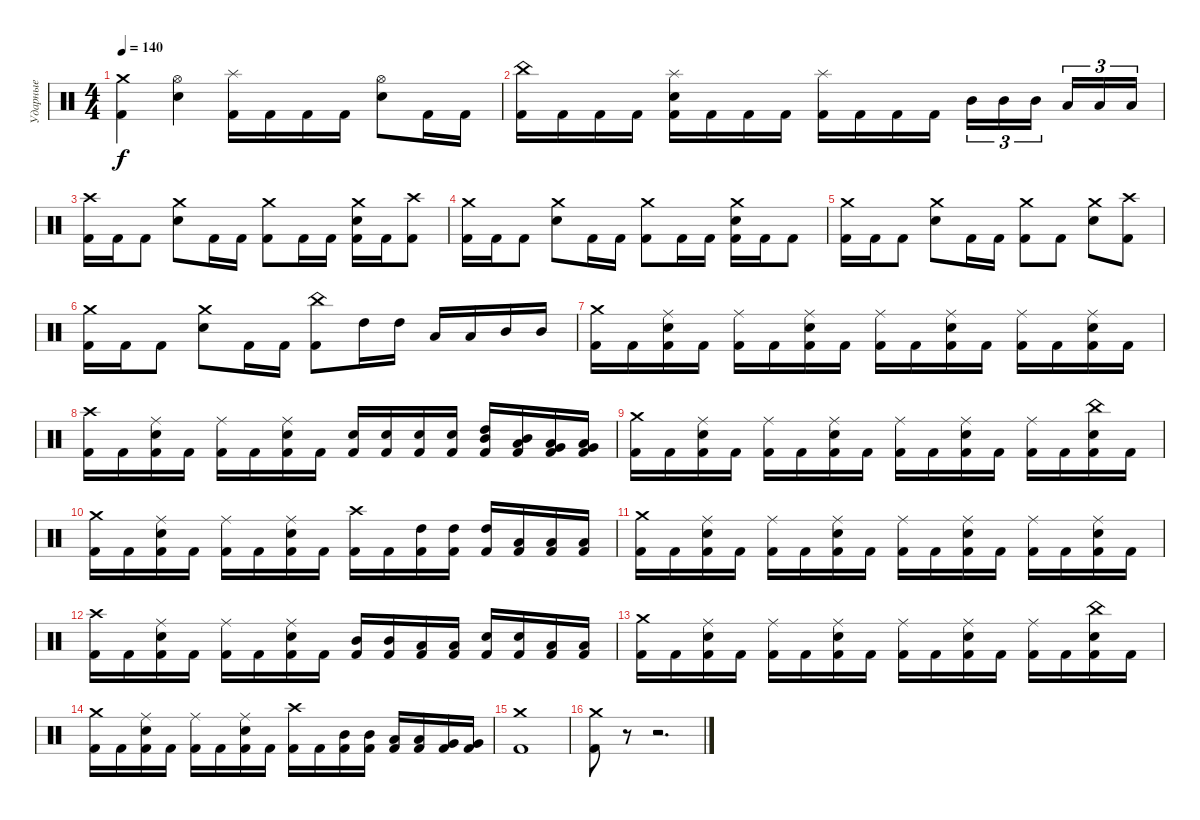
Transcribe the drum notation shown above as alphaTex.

\track ("Ударные" "Ударные") {instrument percussion}
\staff {score}
\articulation defaults
\ts (4 4)
\tempo 140
\clef neutral
\ks c
("Crash medium (hit)" "Kick (hit) 2").4{dy f} ("Hi-Hat (open)" "Electric Snare (hit)").4 ("Splash (hit)" "Kick (hit) 2").16 "Kick (hit) 2".16 "Kick (hit) 2".16 "Kick (hit) 2".16 ("Hi-Hat (open)" "Electric Snare (hit)").8 "Kick (hit) 2".16 "Kick (hit) 2".16 |
("China (hit)" "Kick (hit) 2").16 "Kick (hit) 2".16 "Kick (hit) 2".16 "Kick (hit) 2".16 ("Splash (hit)" "Electric Snare (hit)" "Kick (hit) 2").16 "Kick (hit) 2".16 "Kick (hit) 2".16 "Kick (hit) 2".16 ("Splash (hit)" "Kick (hit) 2").16 "Kick (hit) 2".16 "Kick (hit) 2".16 "Kick (hit) 2".16 "Mid Tom (hit)".16{tu (3 2)} "Mid Tom (hit)".16{tu (3 2)} "Mid Tom (hit)".16{tu (3 2) beam splitsecondary} "Low Tom (hit)".16{tu (3 2)} "Low Tom (hit)".16{tu (3 2)} "Low Tom (hit)".16{tu (3 2)} |
("Crash high (hit)" "Kick (hit) 2").16 "Kick (hit) 2".16 "Kick (hit) 2".8 ("Crash medium (hit)" "Electric Snare (hit)").8 "Kick (hit) 2".16 "Kick (hit) 2".16 ("Crash medium (hit)" "Kick (hit) 2").8 "Kick (hit) 2".16 "Kick (hit) 2".16 ("Crash medium (hit)" "Electric Snare (hit)" "Kick (hit) 2").16 "Kick (hit) 2".16 ("Crash high (hit)" "Kick (hit) 2").8 |
("Crash medium (hit)" "Kick (hit) 2").16 "Kick (hit) 2".16 "Kick (hit) 2".8 ("Crash medium (hit)" "Electric Snare (hit)").8 "Kick (hit) 2".16 "Kick (hit) 2".16 ("Crash medium (hit)" "Kick (hit) 2").8 "Kick (hit) 2".16 "Kick (hit) 2".16 ("Crash medium (hit)" "Electric Snare (hit)" "Kick (hit) 2").16 "Kick (hit) 2".16 "Kick (hit) 2".8 |
("Crash medium (hit)" "Kick (hit) 2").16 "Kick (hit) 2".16 "Kick (hit) 2".8 ("Crash medium (hit)" "Electric Snare (hit)").8 "Kick (hit) 2".16 "Kick (hit) 2".16 ("Crash medium (hit)" "Kick (hit) 2").8 "Kick (hit) 2".8 ("Crash medium (hit)" "Electric Snare (hit)").8 ("Crash high (hit)" "Kick (hit) 2").8 |
("Crash medium (hit)" "Kick (hit) 2").16 "Kick (hit) 2".16 "Kick (hit) 2".8 ("Crash medium (hit)" "Electric Snare (hit)").8 "Kick (hit) 2".16 "Kick (hit) 2".16 ("China (hit)" "Kick (hit) 2").8 "High Tom (hit)".16 "High Tom (hit)".16 "Low Tom (hit)".16 "Low Tom (hit)".16 "Mid Tom (hit)".16 "Mid Tom (hit)".16 |
("Crash medium (hit)" "Kick (hit) 2").16 "Kick (hit) 2".16 ("Ride (middle)" "Electric Snare (hit)" "Kick (hit) 2").16 "Kick (hit) 2".16 ("Ride (middle)" "Kick (hit) 2").16 "Kick (hit) 2".16 ("Ride (middle)" "Electric Snare (hit)" "Kick (hit) 2").16 "Kick (hit) 2".16 ("Ride (middle)" "Kick (hit) 2").16 "Kick (hit) 2".16 ("Ride (middle)" "Electric Snare (hit)" "Kick (hit) 2").16 "Kick (hit) 2".16 ("Ride (middle)" "Kick (hit) 2").16 "Kick (hit) 2".16 ("Ride (middle)" "Electric Snare (hit)" "Kick (hit) 2").16 "Kick (hit) 2".16 |
("Crash high (hit)" "Kick (hit) 2").16 "Kick (hit) 2".16 ("Ride (middle)" "Electric Snare (hit)" "Kick (hit) 2").16 "Kick (hit) 2".16 ("Ride (middle)" "Kick (hit) 2").16 "Kick (hit) 2".16 ("Ride (middle)" "Electric Snare (hit)" "Kick (hit) 2").16 "Kick (hit) 2".16 ("Electric Snare (hit)" "Kick (hit) 2").16 ("Electric Snare (hit)" "Kick (hit) 2").16 ("Electric Snare (hit)" "Kick (hit) 2").16 ("Electric Snare (hit)" "Kick (hit) 2").16 ("High Tom (hit)" "Mid Tom (hit)" "Kick (hit) 2").16 ("Mid Tom (hit)" "Low Tom (hit)" "Kick (hit) 2").16 ("Low Tom (hit)" "Very Low Tom (hit)" "Kick (hit) 2").16 ("Very Low Tom (hit)" "Low Floor Tom (hit)" "Kick (hit) 2").16 |
("Crash medium (hit)" "Kick (hit) 2").16 "Kick (hit) 2".16 ("Ride (middle)" "Electric Snare (hit)" "Kick (hit) 2").16 "Kick (hit) 2".16 ("Ride (middle)" "Kick (hit) 2").16 "Kick (hit) 2".16 ("Ride (middle)" "Electric Snare (hit)" "Kick (hit) 2").16 "Kick (hit) 2".16 ("Ride (middle)" "Kick (hit) 2").16 "Kick (hit) 2".16 ("Ride (middle)" "Electric Snare (hit)" "Kick (hit) 2").16 "Kick (hit) 2".16 ("Ride (middle)" "Kick (hit) 2").16 "Kick (hit) 2".16 ("China (hit)" "Electric Snare (hit)" "Kick (hit) 2").16 "Kick (hit) 2".16 |
("Crash medium (hit)" "Kick (hit) 2").16 "Kick (hit) 2".16 ("Ride (middle)" "Electric Snare (hit)" "Kick (hit) 2").16 "Kick (hit) 2".16 ("Ride (middle)" "Kick (hit) 2").16 "Kick (hit) 2".16 ("Ride (middle)" "Electric Snare (hit)" "Kick (hit) 2").16 "Kick (hit) 2".16 ("Crash high (hit)" "Kick (hit) 2").16 "Kick (hit) 2".16 ("High Tom (hit)" "Kick (hit) 2").16 ("High Tom (hit)" "Kick (hit) 2").16 ("High Tom (hit)" "Kick (hit) 2").16 ("Low Tom (hit)" "Kick (hit) 2").16 ("Low Tom (hit)" "Kick (hit) 2").16 ("Low Tom (hit)" "Kick (hit) 2").16 |
("Crash medium (hit)" "Kick (hit) 2").16 "Kick (hit) 2".16 ("Ride (middle)" "Electric Snare (hit)" "Kick (hit) 2").16 "Kick (hit) 2".16 ("Ride (middle)" "Kick (hit) 2").16 "Kick (hit) 2".16 ("Ride (middle)" "Electric Snare (hit)" "Kick (hit) 2").16 "Kick (hit) 2".16 ("Ride (middle)" "Kick (hit) 2").16 "Kick (hit) 2".16 ("Ride (middle)" "Electric Snare (hit)" "Kick (hit) 2").16 "Kick (hit) 2".16 ("Ride (middle)" "Kick (hit) 2").16 "Kick (hit) 2".16 ("Ride (middle)" "Electric Snare (hit)" "Kick (hit) 2").16 "Kick (hit) 2".16 |
("Crash high (hit)" "Kick (hit) 2").16 "Kick (hit) 2".16 ("Ride (middle)" "Electric Snare (hit)" "Kick (hit) 2").16 "Kick (hit) 2".16 ("Ride (middle)" "Kick (hit) 2").16 "Kick (hit) 2".16 ("Ride (middle)" "Electric Snare (hit)" "Kick (hit) 2").16 "Kick (hit) 2".16 ("Mid Tom (hit)" "Kick (hit) 2").16 ("Mid Tom (hit)" "Kick (hit) 2").16 ("Low Tom (hit)" "Kick (hit) 2").16 ("Low Tom (hit)" "Kick (hit) 2").16 ("Electric Snare (hit)" "Kick (hit) 2").16 ("Electric Snare (hit)" "Kick (hit) 2").16 ("Low Tom (hit)" "Kick (hit) 2").16 ("Low Tom (hit)" "Kick (hit) 2").16 |
("Crash medium (hit)" "Kick (hit) 2").16 "Kick (hit) 2".16 ("Ride (middle)" "Electric Snare (hit)" "Kick (hit) 2").16 "Kick (hit) 2".16 ("Ride (middle)" "Kick (hit) 2").16 "Kick (hit) 2".16 ("Ride (middle)" "Electric Snare (hit)" "Kick (hit) 2").16 "Kick (hit) 2".16 ("Ride (middle)" "Kick (hit) 2").16 "Kick (hit) 2".16 ("Ride (middle)" "Electric Snare (hit)" "Kick (hit) 2").16 "Kick (hit) 2".16 ("Ride (middle)" "Kick (hit) 2").16 "Kick (hit) 2".16 ("China (hit)" "Electric Snare (hit)" "Kick (hit) 2").16 "Kick (hit) 2".16 |
("Crash medium (hit)" "Kick (hit) 2").16 "Kick (hit) 2".16 ("Ride (middle)" "Electric Snare (hit)" "Kick (hit) 2").16 "Kick (hit) 2".16 ("Ride (middle)" "Kick (hit) 2").16 "Kick (hit) 2".16 ("Ride (middle)" "Electric Snare (hit)" "Kick (hit) 2").16 "Kick (hit) 2".16 ("Crash high (hit)" "Kick (hit) 2").16 "Kick (hit) 2".16 ("Mid Tom (hit)" "Kick (hit) 2").16 ("Mid Tom (hit)" "Kick (hit) 2").16 ("Low Tom (hit)" "Kick (hit) 2").16 ("Low Tom (hit)" "Kick (hit) 2").16 ("Very Low Tom (hit)" "Kick (hit) 2").16 ("Very Low Tom (hit)" "Kick (hit) 2").16 |
("Crash medium (hit)" "Kick (hit) 2").1 |
("Crash medium (hit)" "Kick (hit) 2").8 r.8 r.2{d}
